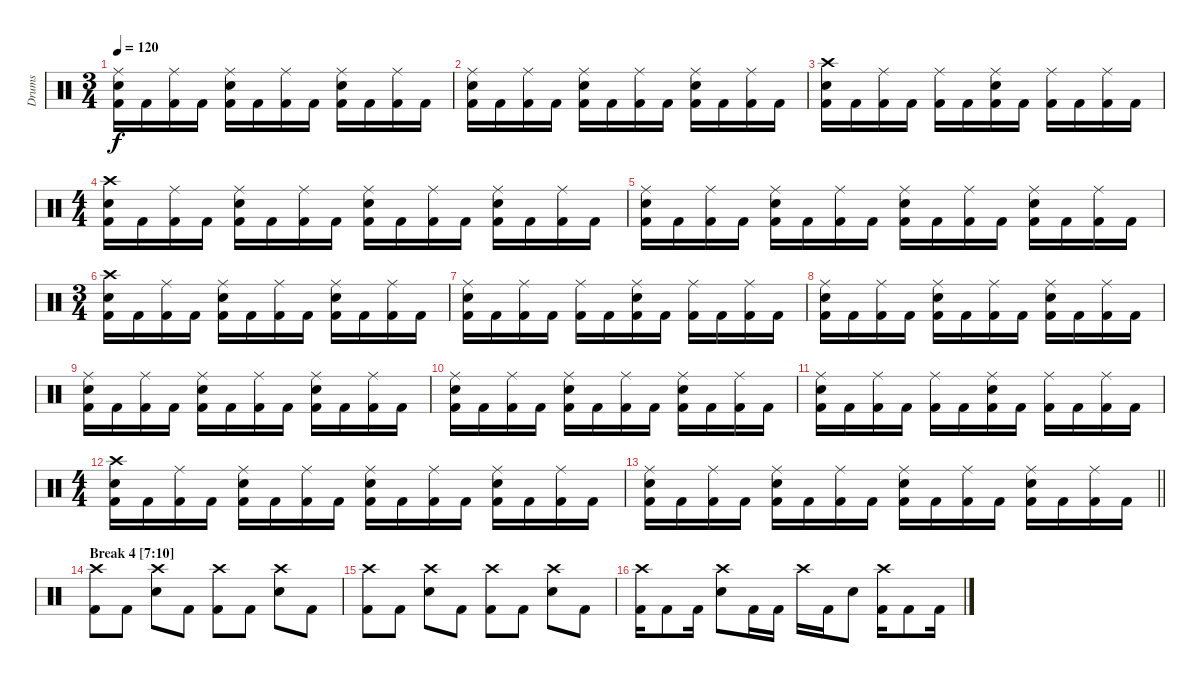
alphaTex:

\track ("Drums" "Drums") {instrument percussion}
\staff {score}
\articulation defaults
\ts (3 4)
\tempo 120
\clef neutral
\ks c
("Ride (middle)" "Snare (hit) 2" "Kick (hit) 2").16{dy f} "Kick (hit) 2".16 ("Ride (middle)" "Kick (hit) 2").16 "Kick (hit) 2".16 ("Ride (middle)" "Snare (hit) 2" "Kick (hit) 2").16 "Kick (hit) 2".16 ("Ride (middle)" "Kick (hit) 2").16 "Kick (hit) 2".16 ("Ride (middle)" "Snare (hit) 2" "Kick (hit) 2").16 "Kick (hit) 2".16 ("Ride (middle)" "Kick (hit) 2").16 "Kick (hit) 2".16 |
("Ride (middle)" "Snare (hit) 2" "Kick (hit) 2").16 "Kick (hit) 2".16 ("Ride (middle)" "Kick (hit) 2").16 "Kick (hit) 2".16 ("Ride (middle)" "Snare (hit) 2" "Kick (hit) 2").16 "Kick (hit) 2".16 ("Ride (middle)" "Kick (hit) 2").16 "Kick (hit) 2".16 ("Ride (middle)" "Snare (hit) 2" "Kick (hit) 2").16 "Kick (hit) 2".16 ("Ride (middle)" "Kick (hit) 2").16 "Kick (hit) 2".16 |
("Crash high (hit)" "Snare (hit) 2" "Kick (hit) 2").16 "Kick (hit) 2".16 ("Ride (middle)" "Kick (hit) 2").16 "Kick (hit) 2".16 ("Ride (middle)" "Kick (hit) 2").16 "Kick (hit) 2".16 ("Ride (middle)" "Snare (hit) 2" "Kick (hit) 2").16 "Kick (hit) 2".16 ("Ride (middle)" "Kick (hit) 2").16 "Kick (hit) 2".16 ("Ride (middle)" "Kick (hit) 2").16 "Kick (hit) 2".16 |
\ts (4 4)
("Crash high (hit)" "Snare (hit) 2" "Kick (hit) 2").16 "Kick (hit) 2".16 ("Ride (middle)" "Kick (hit) 2").16 "Kick (hit) 2".16 ("Ride (middle)" "Snare (hit) 2" "Kick (hit) 2").16 "Kick (hit) 2".16 ("Ride (middle)" "Kick (hit) 2").16 "Kick (hit) 2".16 ("Ride (middle)" "Snare (hit) 2" "Kick (hit) 2").16 "Kick (hit) 2".16 ("Ride (middle)" "Kick (hit) 2").16 "Kick (hit) 2".16 ("Ride (middle)" "Snare (hit) 2" "Kick (hit) 2").16 "Kick (hit) 2".16 ("Ride (middle)" "Kick (hit) 2").16 "Kick (hit) 2".16 |
("Ride (middle)" "Snare (hit) 2" "Kick (hit) 2").16 "Kick (hit) 2".16 ("Ride (middle)" "Kick (hit) 2").16 "Kick (hit) 2".16 ("Ride (middle)" "Snare (hit) 2" "Kick (hit) 2").16 "Kick (hit) 2".16 ("Ride (middle)" "Kick (hit) 2").16 "Kick (hit) 2".16 ("Ride (middle)" "Snare (hit) 2" "Kick (hit) 2").16 "Kick (hit) 2".16 ("Ride (middle)" "Kick (hit) 2").16 "Kick (hit) 2".16 ("Ride (middle)" "Snare (hit) 2" "Kick (hit) 2").16 "Kick (hit) 2".16 ("Ride (middle)" "Kick (hit) 2").16 "Kick (hit) 2".16 |
\ts (3 4)
("Crash high (hit)" "Snare (hit) 2" "Kick (hit) 2").16 "Kick (hit) 2".16 ("Ride (middle)" "Kick (hit) 2").16 "Kick (hit) 2".16 ("Ride (middle)" "Snare (hit) 2" "Kick (hit) 2").16 "Kick (hit) 2".16 ("Ride (middle)" "Kick (hit) 2").16 "Kick (hit) 2".16 ("Ride (middle)" "Snare (hit) 2" "Kick (hit) 2").16 "Kick (hit) 2".16 ("Ride (middle)" "Kick (hit) 2").16 "Kick (hit) 2".16 |
("Ride (middle)" "Snare (hit) 2" "Kick (hit) 2").16 "Kick (hit) 2".16 ("Ride (middle)" "Kick (hit) 2").16 "Kick (hit) 2".16 ("Ride (middle)" "Kick (hit) 2").16 "Kick (hit) 2".16 ("Ride (middle)" "Snare (hit) 2" "Kick (hit) 2").16 "Kick (hit) 2".16 ("Ride (middle)" "Kick (hit) 2").16 "Kick (hit) 2".16 ("Ride (middle)" "Kick (hit) 2").16 "Kick (hit) 2".16 |
("Ride (middle)" "Snare (hit) 2" "Kick (hit) 2").16 "Kick (hit) 2".16 ("Ride (middle)" "Kick (hit) 2").16 "Kick (hit) 2".16 ("Ride (middle)" "Snare (hit) 2" "Kick (hit) 2").16 "Kick (hit) 2".16 ("Ride (middle)" "Kick (hit) 2").16 "Kick (hit) 2".16 ("Ride (middle)" "Snare (hit) 2" "Kick (hit) 2").16 "Kick (hit) 2".16 ("Ride (middle)" "Kick (hit) 2").16 "Kick (hit) 2".16 |
("Ride (middle)" "Snare (hit) 2" "Kick (hit) 2").16 "Kick (hit) 2".16 ("Ride (middle)" "Kick (hit) 2").16 "Kick (hit) 2".16 ("Ride (middle)" "Snare (hit) 2" "Kick (hit) 2").16 "Kick (hit) 2".16 ("Ride (middle)" "Kick (hit) 2").16 "Kick (hit) 2".16 ("Ride (middle)" "Snare (hit) 2" "Kick (hit) 2").16 "Kick (hit) 2".16 ("Ride (middle)" "Kick (hit) 2").16 "Kick (hit) 2".16 |
("Ride (middle)" "Snare (hit) 2" "Kick (hit) 2").16 "Kick (hit) 2".16 ("Ride (middle)" "Kick (hit) 2").16 "Kick (hit) 2".16 ("Ride (middle)" "Snare (hit) 2" "Kick (hit) 2").16 "Kick (hit) 2".16 ("Ride (middle)" "Kick (hit) 2").16 "Kick (hit) 2".16 ("Ride (middle)" "Snare (hit) 2" "Kick (hit) 2").16 "Kick (hit) 2".16 ("Ride (middle)" "Kick (hit) 2").16 "Kick (hit) 2".16 |
("Ride (middle)" "Snare (hit) 2" "Kick (hit) 2").16 "Kick (hit) 2".16 ("Ride (middle)" "Kick (hit) 2").16 "Kick (hit) 2".16 ("Ride (middle)" "Kick (hit) 2").16 "Kick (hit) 2".16 ("Ride (middle)" "Snare (hit) 2" "Kick (hit) 2").16 "Kick (hit) 2".16 ("Ride (middle)" "Kick (hit) 2").16 "Kick (hit) 2".16 ("Ride (middle)" "Kick (hit) 2").16 "Kick (hit) 2".16 |
\ts (4 4)
("Crash high (hit)" "Snare (hit) 2" "Kick (hit) 2").16 "Kick (hit) 2".16 ("Ride (middle)" "Kick (hit) 2").16 "Kick (hit) 2".16 ("Ride (middle)" "Snare (hit) 2" "Kick (hit) 2").16 "Kick (hit) 2".16 ("Ride (middle)" "Kick (hit) 2").16 "Kick (hit) 2".16 ("Ride (middle)" "Snare (hit) 2" "Kick (hit) 2").16 "Kick (hit) 2".16 ("Ride (middle)" "Kick (hit) 2").16 "Kick (hit) 2".16 ("Ride (middle)" "Snare (hit) 2" "Kick (hit) 2").16 "Kick (hit) 2".16 ("Ride (middle)" "Kick (hit) 2").16 "Kick (hit) 2".16 |
\barLineRight lightlight
("Ride (middle)" "Snare (hit) 2" "Kick (hit) 2").16 "Kick (hit) 2".16 ("Ride (middle)" "Kick (hit) 2").16 "Kick (hit) 2".16 ("Ride (middle)" "Snare (hit) 2" "Kick (hit) 2").16 "Kick (hit) 2".16 ("Ride (middle)" "Kick (hit) 2").16 "Kick (hit) 2".16 ("Ride (middle)" "Snare (hit) 2" "Kick (hit) 2").16 "Kick (hit) 2".16 ("Ride (middle)" "Kick (hit) 2").16 "Kick (hit) 2".16 ("Ride (middle)" "Snare (hit) 2" "Kick (hit) 2").16 "Kick (hit) 2".16 ("Ride (middle)" "Kick (hit) 2").16 "Kick (hit) 2".16 |
\section ("" "Break 4 [7:10]")
("Crash high (hit)" "Kick (hit) 2").8 "Kick (hit) 2".8 ("Crash high (hit)" "Snare (hit) 2").8 "Kick (hit) 2".8 ("Crash high (hit)" "Kick (hit) 2").8 "Kick (hit) 2".8 ("Crash high (hit)" "Snare (hit) 2").8 "Kick (hit) 2".8 |
("Crash high (hit)" "Kick (hit) 2").8 "Kick (hit) 2".8 ("Crash high (hit)" "Snare (hit) 2").8 "Kick (hit) 2".8 ("Crash high (hit)" "Kick (hit) 2").8 "Kick (hit) 2".8 ("Crash high (hit)" "Snare (hit) 2").8 "Kick (hit) 2".8 |
("Crash high (hit)" "Kick (hit) 2").16 "Kick (hit) 2".8 "Kick (hit) 2".16 ("Crash high (hit)" "Snare (hit) 2").8 "Kick (hit) 2".16 "Kick (hit) 2".16 "Crash high (hit)".16 "Kick (hit) 2".16 "Snare (hit) 2".8 ("Crash high (hit)" "Kick (hit) 2").16 "Kick (hit) 2".8 "Kick (hit) 2".16
